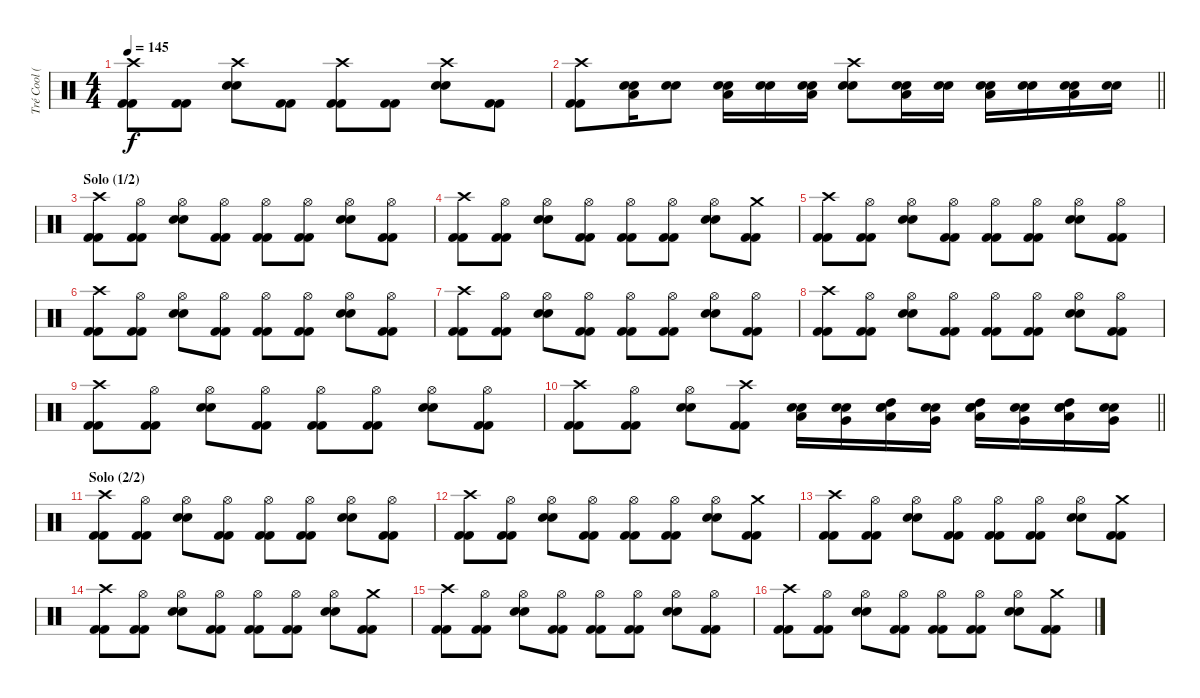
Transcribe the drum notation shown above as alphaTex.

\track ("Tré Cool (Drums)" "Tré Cool (") {instrument percussion}
\staff {score}
\articulation defaults
\ts (4 4)
\tempo 145
\clef neutral
\ks c
("Kick (hit) 2" "Kick (hit) 2" "Crash high (hit)").8{dy f} ("Kick (hit) 2" "Kick (hit) 2").8 ("Snare (hit) 2" "Snare (hit) 2" "Crash high (hit)").8 ("Kick (hit) 2" "Kick (hit) 2").8 ("Kick (hit) 2" "Kick (hit) 2" "Crash high (hit)").8 ("Kick (hit) 2" "Kick (hit) 2").8 ("Snare (hit) 2" "Snare (hit) 2" "Crash high (hit)").8 ("Kick (hit) 2" "Kick (hit) 2").8 |
\barLineRight lightlight
("Kick (hit) 2" "Kick (hit) 2" "Crash high (hit)").8 ("Electric Snare (hit)" "Electric Snare (hit)" "Low Floor Tom (hit)").16 ("Snare (hit) 2" "Snare (hit) 2").8 ("Electric Snare (hit)" "Electric Snare (hit)" "Low Floor Tom (hit)").16 ("Snare (hit) 2" "Snare (hit) 2").16 ("Electric Snare (hit)" "Electric Snare (hit)" "Low Floor Tom (hit)").16 ("Snare (hit) 2" "Snare (hit) 2" "Crash high (hit)").8 ("Electric Snare (hit)" "Electric Snare (hit)" "Low Floor Tom (hit)").16 ("Snare (hit) 2" "Snare (hit) 2").16 ("Electric Snare (hit)" "Electric Snare (hit)" "Low Floor Tom (hit)").16 ("Snare (hit) 2" "Snare (hit) 2").16 ("Electric Snare (hit)" "Electric Snare (hit)" "Low Floor Tom (hit)").16 ("Snare (hit) 2" "Snare (hit) 2").16 |
\section ("" "Solo (1/2)")
("Kick (hit) 2" "Kick (hit) 2" "Crash high (hit)").8 ("Kick (hit) 2" "Kick (hit) 2" "Hi-Hat (open)").8 ("Snare (hit) 2" "Snare (hit) 2" "Hi-Hat (open)").8 ("Kick (hit) 2" "Kick (hit) 2" "Hi-Hat (open)").8 ("Kick (hit) 2" "Kick (hit) 2" "Hi-Hat (open)").8 ("Kick (hit) 2" "Kick (hit) 2" "Hi-Hat (open)").8 ("Snare (hit) 2" "Snare (hit) 2" "Hi-Hat (open)").8 ("Kick (hit) 2" "Kick (hit) 2" "Hi-Hat (open)").8 |
("Kick (hit) 2" "Kick (hit) 2" "Crash high (hit)").8 ("Kick (hit) 2" "Kick (hit) 2" "Hi-Hat (open)").8 ("Snare (hit) 2" "Snare (hit) 2" "Hi-Hat (open)").8 ("Kick (hit) 2" "Kick (hit) 2" "Hi-Hat (open)").8 ("Kick (hit) 2" "Kick (hit) 2" "Hi-Hat (open)").8 ("Kick (hit) 2" "Kick (hit) 2" "Hi-Hat (open)").8 ("Snare (hit) 2" "Snare (hit) 2" "Hi-Hat (open)").8 ("Kick (hit) 2" "Kick (hit) 2" "Crash medium (hit)").8 |
("Kick (hit) 2" "Kick (hit) 2" "Crash high (hit)").8 ("Kick (hit) 2" "Kick (hit) 2" "Hi-Hat (open)").8 ("Snare (hit) 2" "Snare (hit) 2" "Hi-Hat (open)").8 ("Kick (hit) 2" "Kick (hit) 2" "Hi-Hat (open)").8 ("Kick (hit) 2" "Kick (hit) 2" "Hi-Hat (open)").8 ("Kick (hit) 2" "Kick (hit) 2" "Hi-Hat (open)").8 ("Snare (hit) 2" "Snare (hit) 2" "Hi-Hat (open)").8 ("Kick (hit) 2" "Kick (hit) 2" "Hi-Hat (open)").8 |
("Kick (hit) 2" "Kick (hit) 2" "Crash high (hit)").8 ("Kick (hit) 2" "Kick (hit) 2" "Hi-Hat (open)").8 ("Snare (hit) 2" "Snare (hit) 2" "Hi-Hat (open)").8 ("Kick (hit) 2" "Kick (hit) 2" "Hi-Hat (open)").8 ("Kick (hit) 2" "Kick (hit) 2" "Hi-Hat (open)").8 ("Kick (hit) 2" "Kick (hit) 2" "Hi-Hat (open)").8 ("Snare (hit) 2" "Snare (hit) 2" "Hi-Hat (open)").8 ("Kick (hit) 2" "Kick (hit) 2" "Hi-Hat (open)").8 |
("Kick (hit) 2" "Kick (hit) 2" "Crash high (hit)").8 ("Kick (hit) 2" "Kick (hit) 2" "Hi-Hat (open)").8 ("Snare (hit) 2" "Snare (hit) 2" "Hi-Hat (open)").8 ("Kick (hit) 2" "Kick (hit) 2" "Hi-Hat (open)").8 ("Kick (hit) 2" "Kick (hit) 2" "Hi-Hat (open)").8 ("Kick (hit) 2" "Kick (hit) 2" "Hi-Hat (open)").8 ("Snare (hit) 2" "Snare (hit) 2" "Hi-Hat (open)").8 ("Kick (hit) 2" "Kick (hit) 2" "Hi-Hat (open)").8 |
("Kick (hit) 2" "Kick (hit) 2" "Crash high (hit)").8 ("Kick (hit) 2" "Kick (hit) 2" "Hi-Hat (open)").8 ("Snare (hit) 2" "Snare (hit) 2" "Hi-Hat (open)").8 ("Kick (hit) 2" "Kick (hit) 2" "Hi-Hat (open)").8 ("Kick (hit) 2" "Kick (hit) 2" "Hi-Hat (open)").8 ("Kick (hit) 2" "Kick (hit) 2" "Hi-Hat (open)").8 ("Snare (hit) 2" "Snare (hit) 2" "Hi-Hat (open)").8 ("Kick (hit) 2" "Kick (hit) 2" "Hi-Hat (open)").8 |
("Kick (hit) 2" "Kick (hit) 2" "Crash high (hit)").8 ("Kick (hit) 2" "Kick (hit) 2" "Hi-Hat (open)").8 ("Snare (hit) 2" "Snare (hit) 2" "Hi-Hat (open)").8 ("Kick (hit) 2" "Kick (hit) 2" "Hi-Hat (open)").8 ("Kick (hit) 2" "Kick (hit) 2" "Hi-Hat (open)").8 ("Kick (hit) 2" "Kick (hit) 2" "Hi-Hat (open)").8 ("Snare (hit) 2" "Snare (hit) 2" "Hi-Hat (open)").8 ("Kick (hit) 2" "Kick (hit) 2" "Hi-Hat (open)").8 |
\barLineRight lightlight
("Kick (hit) 2" "Kick (hit) 2" "Crash high (hit)").8 ("Kick (hit) 2" "Kick (hit) 2" "Hi-Hat (open)").8 ("Snare (hit) 2" "Snare (hit) 2" "Hi-Hat (open)").8 ("Kick (hit) 2" "Kick (hit) 2" "Crash high (hit)").8 ("Electric Snare (hit)" "Electric Snare (hit)" "Low Floor Tom (hit)").16 ("Snare (hit) 2" "Snare (hit) 2" "Very Low Tom (hit)").16 ("Electric Snare (hit)" "Electric Snare (hit)" "Low Floor Tom (hit)" "High Tom (hit)").16 ("Snare (hit) 2" "Snare (hit) 2" "Very Low Tom (hit)").16 ("Electric Snare (hit)" "Electric Snare (hit)" "Low Floor Tom (hit)" "High Tom (hit)").16 ("Snare (hit) 2" "Snare (hit) 2" "Very Low Tom (hit)").16 ("Electric Snare (hit)" "Electric Snare (hit)" "Low Floor Tom (hit)" "High Tom (hit)").16 ("Snare (hit) 2" "Snare (hit) 2" "Very Low Tom (hit)").16 |
\section ("" "Solo (2/2)")
("Kick (hit) 2" "Kick (hit) 2" "Crash high (hit)").8 ("Kick (hit) 2" "Kick (hit) 2" "Hi-Hat (open)").8 ("Snare (hit) 2" "Snare (hit) 2" "Hi-Hat (open)").8 ("Kick (hit) 2" "Kick (hit) 2" "Hi-Hat (open)").8 ("Kick (hit) 2" "Kick (hit) 2" "Hi-Hat (open)").8 ("Kick (hit) 2" "Kick (hit) 2" "Hi-Hat (open)").8 ("Snare (hit) 2" "Snare (hit) 2" "Hi-Hat (open)").8 ("Kick (hit) 2" "Kick (hit) 2" "Hi-Hat (open)").8 |
("Kick (hit) 2" "Kick (hit) 2" "Crash high (hit)").8 ("Kick (hit) 2" "Kick (hit) 2" "Hi-Hat (open)").8 ("Snare (hit) 2" "Snare (hit) 2" "Hi-Hat (open)").8 ("Kick (hit) 2" "Kick (hit) 2" "Hi-Hat (open)").8 ("Kick (hit) 2" "Kick (hit) 2" "Hi-Hat (open)").8 ("Kick (hit) 2" "Kick (hit) 2" "Hi-Hat (open)").8 ("Snare (hit) 2" "Snare (hit) 2" "Hi-Hat (open)").8 ("Kick (hit) 2" "Kick (hit) 2" "Crash medium (hit)").8 |
("Kick (hit) 2" "Kick (hit) 2" "Crash high (hit)").8 ("Kick (hit) 2" "Kick (hit) 2" "Hi-Hat (open)").8 ("Snare (hit) 2" "Snare (hit) 2" "Hi-Hat (open)").8 ("Kick (hit) 2" "Kick (hit) 2" "Hi-Hat (open)").8 ("Kick (hit) 2" "Kick (hit) 2" "Hi-Hat (open)").8 ("Kick (hit) 2" "Kick (hit) 2" "Hi-Hat (open)").8 ("Snare (hit) 2" "Snare (hit) 2" "Hi-Hat (open)").8 ("Kick (hit) 2" "Kick (hit) 2" "Crash medium (hit)").8 |
("Kick (hit) 2" "Kick (hit) 2" "Crash high (hit)").8 ("Kick (hit) 2" "Kick (hit) 2" "Hi-Hat (open)").8 ("Snare (hit) 2" "Snare (hit) 2" "Hi-Hat (open)").8 ("Kick (hit) 2" "Kick (hit) 2" "Hi-Hat (open)").8 ("Kick (hit) 2" "Kick (hit) 2" "Hi-Hat (open)").8 ("Kick (hit) 2" "Kick (hit) 2" "Hi-Hat (open)").8 ("Snare (hit) 2" "Snare (hit) 2" "Hi-Hat (open)").8 ("Kick (hit) 2" "Kick (hit) 2" "Crash medium (hit)").8 |
("Kick (hit) 2" "Kick (hit) 2" "Crash high (hit)").8 ("Kick (hit) 2" "Kick (hit) 2" "Hi-Hat (open)").8 ("Snare (hit) 2" "Snare (hit) 2" "Hi-Hat (open)").8 ("Kick (hit) 2" "Kick (hit) 2" "Hi-Hat (open)").8 ("Kick (hit) 2" "Kick (hit) 2" "Hi-Hat (open)").8 ("Kick (hit) 2" "Kick (hit) 2" "Hi-Hat (open)").8 ("Snare (hit) 2" "Snare (hit) 2" "Hi-Hat (open)").8 ("Kick (hit) 2" "Kick (hit) 2" "Hi-Hat (open)").8 |
("Kick (hit) 2" "Kick (hit) 2" "Crash high (hit)").8 ("Kick (hit) 2" "Kick (hit) 2" "Hi-Hat (open)").8 ("Snare (hit) 2" "Snare (hit) 2" "Hi-Hat (open)").8 ("Kick (hit) 2" "Kick (hit) 2" "Hi-Hat (open)").8 ("Kick (hit) 2" "Kick (hit) 2" "Hi-Hat (open)").8 ("Kick (hit) 2" "Kick (hit) 2" "Hi-Hat (open)").8 ("Snare (hit) 2" "Snare (hit) 2" "Hi-Hat (open)").8 ("Kick (hit) 2" "Kick (hit) 2" "Crash medium (hit)").8
